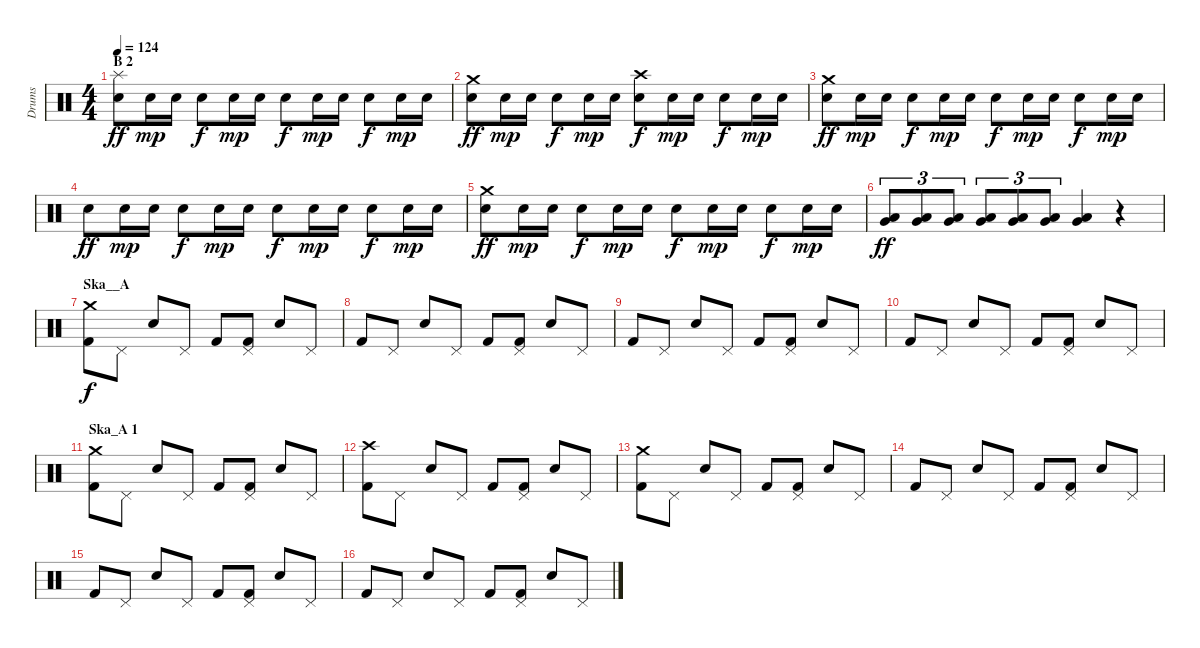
\track ("Drums" "Drums") {instrument percussion}
\staff {score}
\articulation defaults
\ts (4 4)
\section ("" "B 2")
\tempo 124
\clef neutral
\ks c
("Splash (hit)" "Snare (hit) 2").8{dy ff} "Snare (hit) 2".16{dy mp} "Snare (hit) 2".16 "Snare (hit) 2".8{dy f} "Snare (hit) 2".16{dy mp} "Snare (hit) 2".16 "Snare (hit) 2".8{dy f} "Snare (hit) 2".16{dy mp} "Snare (hit) 2".16 "Snare (hit) 2".8{dy f} "Snare (hit) 2".16{dy mp} "Snare (hit) 2".16 |
("Crash medium (hit)" "Snare (hit) 2").8{dy ff} "Snare (hit) 2".16{dy mp} "Snare (hit) 2".16 "Snare (hit) 2".8{dy f} "Snare (hit) 2".16{dy mp} "Snare (hit) 2".16 ("Crash high (hit)" "Snare (hit) 2").8{dy f} "Snare (hit) 2".16{dy mp} "Snare (hit) 2".16 "Snare (hit) 2".8{dy f} "Snare (hit) 2".16{dy mp} "Snare (hit) 2".16 |
("Crash medium (hit)" "Snare (hit) 2").8{dy ff} "Snare (hit) 2".16{dy mp} "Snare (hit) 2".16 "Snare (hit) 2".8{dy f} "Snare (hit) 2".16{dy mp} "Snare (hit) 2".16 "Snare (hit) 2".8{dy f} "Snare (hit) 2".16{dy mp} "Snare (hit) 2".16 "Snare (hit) 2".8{dy f} "Snare (hit) 2".16{dy mp} "Snare (hit) 2".16 |
"Snare (hit) 2".8{dy ff} "Snare (hit) 2".16{dy mp} "Snare (hit) 2".16 "Snare (hit) 2".8{dy f} "Snare (hit) 2".16{dy mp} "Snare (hit) 2".16 "Snare (hit) 2".8{dy f} "Snare (hit) 2".16{dy mp} "Snare (hit) 2".16 "Snare (hit) 2".8{dy f} "Snare (hit) 2".16{dy mp} "Snare (hit) 2".16 |
("Crash medium (hit)" "Snare (hit) 2").8{dy ff} "Snare (hit) 2".16{dy mp} "Snare (hit) 2".16 "Snare (hit) 2".8{dy f} "Snare (hit) 2".16{dy mp} "Snare (hit) 2".16 "Snare (hit) 2".8{dy f} "Snare (hit) 2".16{dy mp} "Snare (hit) 2".16 "Snare (hit) 2".8{dy f} "Snare (hit) 2".16{dy mp} "Snare (hit) 2".16 |
("Low Tom (hit)" "Very Low Tom (hit)").8{tu (3 2) dy ff} ("Low Tom (hit)" "Very Low Tom (hit)").8{tu (3 2)} ("Low Tom (hit)" "Very Low Tom (hit)").8{tu (3 2)} ("Low Tom (hit)" "Very Low Tom (hit)").8{tu (3 2)} ("Low Tom (hit)" "Very Low Tom (hit)").8{tu (3 2)} ("Low Tom (hit)" "Very Low Tom (hit)").8{tu (3 2)} ("Low Tom (hit)" "Very Low Tom (hit)").4 r.4 |
\section ("" "Ska__A")
("Crash medium (hit)" "Kick (hit) 2").8{dy f} "Pedal Hi-Hat (hit)".8 "Snare (hit) 2".8 "Pedal Hi-Hat (hit)".8 "Kick (hit) 2".8 ("Pedal Hi-Hat (hit)" "Kick (hit) 2").8 "Snare (hit) 2".8 "Pedal Hi-Hat (hit)".8 |
"Kick (hit) 2".8 "Pedal Hi-Hat (hit)".8 "Snare (hit) 2".8 "Pedal Hi-Hat (hit)".8 "Kick (hit) 2".8 ("Pedal Hi-Hat (hit)" "Kick (hit) 2").8 "Snare (hit) 2".8 "Pedal Hi-Hat (hit)".8 |
"Kick (hit) 2".8 "Pedal Hi-Hat (hit)".8 "Snare (hit) 2".8 "Pedal Hi-Hat (hit)".8 "Kick (hit) 2".8 ("Pedal Hi-Hat (hit)" "Kick (hit) 2").8 "Snare (hit) 2".8 "Pedal Hi-Hat (hit)".8 |
"Kick (hit) 2".8 "Pedal Hi-Hat (hit)".8 "Snare (hit) 2".8 "Pedal Hi-Hat (hit)".8 "Kick (hit) 2".8 ("Pedal Hi-Hat (hit)" "Kick (hit) 2").8 "Snare (hit) 2".8 "Pedal Hi-Hat (hit)".8 |
\section ("" "Ska_A 1")
("Crash medium (hit)" "Kick (hit) 2").8 "Pedal Hi-Hat (hit)".8 "Snare (hit) 2".8 "Pedal Hi-Hat (hit)".8 "Kick (hit) 2".8 ("Pedal Hi-Hat (hit)" "Kick (hit) 2").8 "Snare (hit) 2".8 "Pedal Hi-Hat (hit)".8 |
("Crash high (hit)" "Kick (hit) 2").8 "Pedal Hi-Hat (hit)".8 "Snare (hit) 2".8 "Pedal Hi-Hat (hit)".8 "Kick (hit) 2".8 ("Pedal Hi-Hat (hit)" "Kick (hit) 2").8 "Snare (hit) 2".8 "Pedal Hi-Hat (hit)".8 |
("Crash medium (hit)" "Kick (hit) 2").8 "Pedal Hi-Hat (hit)".8 "Snare (hit) 2".8 "Pedal Hi-Hat (hit)".8 "Kick (hit) 2".8 ("Pedal Hi-Hat (hit)" "Kick (hit) 2").8 "Snare (hit) 2".8 "Pedal Hi-Hat (hit)".8 |
"Kick (hit) 2".8 "Pedal Hi-Hat (hit)".8 "Snare (hit) 2".8 "Pedal Hi-Hat (hit)".8 "Kick (hit) 2".8 ("Pedal Hi-Hat (hit)" "Kick (hit) 2").8 "Snare (hit) 2".8 "Pedal Hi-Hat (hit)".8 |
"Kick (hit) 2".8 "Pedal Hi-Hat (hit)".8 "Snare (hit) 2".8 "Pedal Hi-Hat (hit)".8 "Kick (hit) 2".8 ("Pedal Hi-Hat (hit)" "Kick (hit) 2").8 "Snare (hit) 2".8 "Pedal Hi-Hat (hit)".8 |
"Kick (hit) 2".8 "Pedal Hi-Hat (hit)".8 "Snare (hit) 2".8 "Pedal Hi-Hat (hit)".8 "Kick (hit) 2".8 ("Pedal Hi-Hat (hit)" "Kick (hit) 2").8 "Snare (hit) 2".8 "Pedal Hi-Hat (hit)".8
